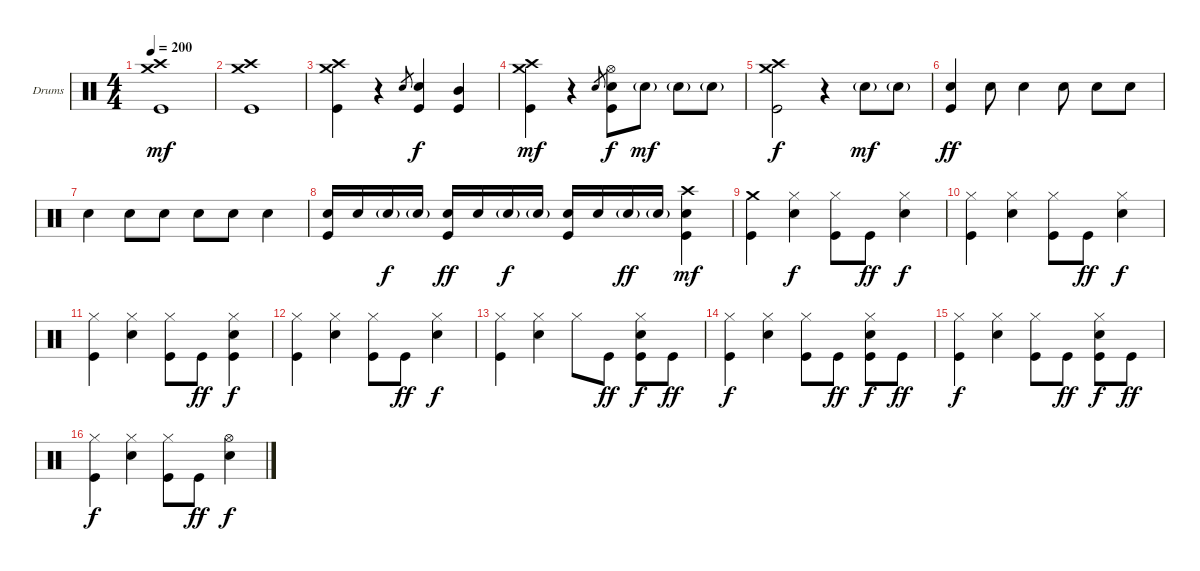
\bracketExtendMode groupsimilarinstruments
\firstSystemTrackNameOrientation horizontal
\otherSystemsTrackNameOrientation horizontal
\track ("Drumkit" "Drums") {instrument percussion}
\staff {score}
\articulation defaults
\ts (4 4)
\tempo 200
\clef neutral
\ks c
("Crash medium (hit)" "Crash high (hit)" "Kick (hit)").1{dy mf} |
("Crash medium (hit)" "Crash high (hit)" "Kick (hit)").1 |
("Crash medium (hit)" "Crash high (hit)" "Kick (hit)").4 r.4 "Snare (hit) 2".8{gr} ("Snare (hit) 2" "Kick (hit)").4{dy f} ("Mid Tom (hit)" "Kick (hit)").4 |
("Crash medium (hit)" "Crash high (hit)" "Kick (hit)").4{dy mf} r.4 "Snare (hit) 2".8{gr} ("Hi-Hat (open)" "Snare (hit) 2" "Kick (hit)").8{dy f} "Snare (hit) 2"{g}.8{dy mf} "Snare (hit) 2"{g}.8 "Snare (hit) 2"{g}.8 |
("Crash medium (hit)" "Crash high (hit)" "Kick (hit)").2{dy f} r.4 "Snare (hit) 2"{g}.8{dy mf} "Snare (hit) 2"{g}.8 |
("Snare (hit) 2" "Kick (hit)").4{dy ff} "Snare (hit) 2".8 "Snare (hit) 2".4 "Snare (hit) 2".8 "Snare (hit) 2".8 "Snare (hit) 2".8 |
"Snare (hit) 2".4 "Snare (hit) 2".8 "Snare (hit) 2".8 "Snare (hit) 2".8 "Snare (hit) 2".8 "Snare (hit) 2".4 |
("Snare (hit) 2" "Kick (hit)").16 "Snare (hit) 2".16 "Snare (hit) 2"{g}.16{dy f} "Snare (hit) 2"{g}.16 ("Snare (hit) 2" "Kick (hit)").16{dy ff} "Snare (hit) 2".16 "Snare (hit) 2"{g}.16{dy f} "Snare (hit) 2"{g}.16 ("Snare (hit) 2" "Kick (hit)").16 "Snare (hit) 2".16 "Snare (hit) 2"{g}.16{dy ff} "Snare (hit) 2"{g}.16 ("Crash high (hit)" "Snare (hit) 2" "Kick (hit)").4{dy mf} |
("Crash medium (hit)" "Kick (hit)").4 ("Hi-Hat (closed)" "Snare (hit) 2").4{dy f} ("Hi-Hat (closed)" "Kick (hit)").8 "Kick (hit)".8{dy ff} ("Hi-Hat (closed)" "Snare (hit) 2").4{dy f} |
("Hi-Hat (closed)" "Kick (hit)").4 ("Hi-Hat (closed)" "Snare (hit) 2").4 ("Hi-Hat (closed)" "Kick (hit)").8 "Kick (hit)".8{dy ff} ("Hi-Hat (closed)" "Snare (hit) 2").4{dy f} |
("Hi-Hat (closed)" "Kick (hit)").4 ("Hi-Hat (closed)" "Snare (hit) 2").4 ("Hi-Hat (closed)" "Kick (hit)").8 "Kick (hit)".8{dy ff} ("Hi-Hat (closed)" "Snare (hit) 2" "Kick (hit)").4{dy f} |
("Hi-Hat (closed)" "Kick (hit)").4 ("Hi-Hat (closed)" "Snare (hit) 2").4 ("Hi-Hat (closed)" "Kick (hit)").8 "Kick (hit)".8{dy ff} ("Hi-Hat (closed)" "Snare (hit) 2").4{dy f} |
("Hi-Hat (closed)" "Kick (hit)").4 ("Hi-Hat (closed)" "Snare (hit) 2").4 "Hi-Hat (closed)".8 "Kick (hit)".8{dy ff} ("Hi-Hat (closed)" "Snare (hit) 2" "Kick (hit)").8{dy f} "Kick (hit)".8{dy ff} |
("Hi-Hat (closed)" "Kick (hit)").4{dy f} ("Hi-Hat (closed)" "Snare (hit) 2").4 ("Hi-Hat (closed)" "Kick (hit)").8 "Kick (hit)".8{dy ff} ("Hi-Hat (closed)" "Snare (hit) 2" "Kick (hit)").8{dy f} "Kick (hit)".8{dy ff} |
("Hi-Hat (closed)" "Kick (hit)").4{dy f} ("Hi-Hat (closed)" "Snare (hit) 2").4 ("Hi-Hat (closed)" "Kick (hit)").8 "Kick (hit)".8{dy ff} ("Hi-Hat (closed)" "Snare (hit) 2" "Kick (hit)").8{dy f} "Kick (hit)".8{dy ff} |
("Hi-Hat (closed)" "Kick (hit)").4{dy f} ("Hi-Hat (closed)" "Snare (hit) 2").4 ("Hi-Hat (closed)" "Kick (hit)").8 "Kick (hit)".8{dy ff} ("Hi-Hat (open)" "Snare (hit) 2").4{dy f}
